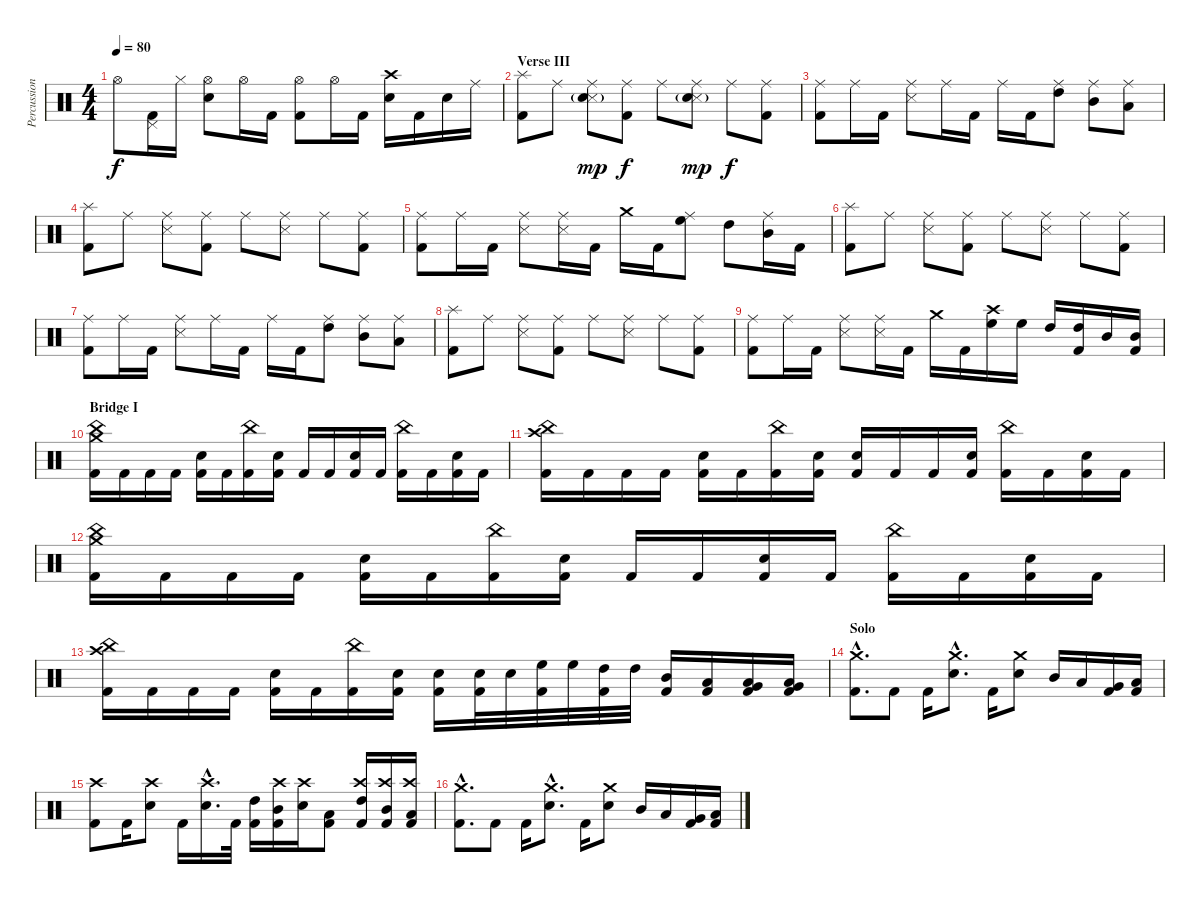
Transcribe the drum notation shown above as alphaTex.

\track ("Percussion" "Percussion") {instrument percussion}
\staff {score}
\articulation defaults
\ts (4 4)
\tempo 80
\clef neutral
\ks c "Hi-Hat (open)".8{dy f}
("Pedal Hi-Hat (hit)" "Kick (hit) 2").16 "Hi-Hat (closed)".16 ("Hi-Hat (open)" "Electric Snare (hit)").8 "Hi-Hat (open)".16 "Kick (hit) 2".16 ("Hi-Hat (open)" "Kick (hit) 2").8 "Hi-Hat (open)".16 "Kick (hit) 2".16 ("Crash high (hit)" "Electric Snare (hit)").16 "Kick (hit) 2".16 "Electric Snare (hit)".16 "Ride (middle)".16 |
\section ("" "Verse III")
("Splash (hit)" "Kick (hit) 2").8 "Ride (middle)".8 ("Ride (middle)" "Snare (side stick) 3" "Electric Snare (hit)"{g}).8{dy mp} ("Ride (middle)" "Kick (hit) 2").8{dy f} "Ride (middle)".8 ("Ride (middle)" "Snare (side stick) 3" "Electric Snare (hit)"{g}).8{dy mp} "Ride (middle)".8{dy f} ("Ride (middle)" "Kick (hit) 2").8 |
("Ride (middle)" "Kick (hit) 2").8 "Ride (middle)".16 "Kick (hit) 2".16 ("Ride (middle)" "Snare (side stick) 3").8 "Ride (middle)".16 "Kick (hit) 2".16 "Ride (middle)".16 "Kick (hit) 2".16 ("Ride (middle)" "High Tom (hit)").8 ("Ride (middle)" "Mid Tom (hit)").8 ("Ride (middle)" "Low Tom (hit)").8 |
("Splash (hit)" "Kick (hit) 2").8 "Ride (middle)".8 ("Ride (middle)" "Snare (side stick) 3").8 ("Ride (middle)" "Kick (hit) 2").8 "Ride (middle)".8 ("Ride (middle)" "Snare (side stick) 3").8 "Ride (middle)".8 ("Ride (middle)" "Kick (hit) 2").8 |
("Ride (middle)" "Kick (hit) 2").8 "Ride (middle)".16 "Kick (hit) 2".16 ("Ride (middle)" "Snare (side stick) 3").8 ("Ride (middle)" "Snare (side stick) 3").16 "Kick (hit) 2".16 "Crash medium (hit)".16 "Kick (hit) 2".16 ("Ride (middle)" "High Floor Tom (hit)").8 "High Tom (hit)".8 ("Ride (middle)" "Mid Tom (hit)").16 "Kick (hit) 2".16 |
("Splash (hit)" "Kick (hit) 2").8 "Ride (middle)".8 ("Ride (middle)" "Snare (side stick) 3").8 ("Ride (middle)" "Kick (hit) 2").8 "Ride (middle)".8 ("Ride (middle)" "Snare (side stick) 3").8 "Ride (middle)".8 ("Ride (middle)" "Kick (hit) 2").8 |
("Ride (middle)" "Kick (hit) 2").8 "Ride (middle)".16 "Kick (hit) 2".16 ("Ride (middle)" "Snare (side stick) 3").8 "Ride (middle)".16 "Kick (hit) 2".16 "Ride (middle)".16 "Kick (hit) 2".16 ("Ride (middle)" "High Tom (hit)").8 ("Ride (middle)" "Mid Tom (hit)").8 ("Ride (middle)" "Low Tom (hit)").8 |
("Splash (hit)" "Kick (hit) 2").8 "Ride (middle)".8 ("Ride (middle)" "Snare (side stick) 3").8 ("Ride (middle)" "Kick (hit) 2").8 "Ride (middle)".8 ("Ride (middle)" "Snare (side stick) 3").8 "Ride (middle)".8 ("Ride (middle)" "Kick (hit) 2").8 |
("Ride (middle)" "Kick (hit) 2").8 "Ride (middle)".16 "Kick (hit) 2".16 ("Ride (middle)" "Snare (side stick) 3").8 ("Ride (middle)" "Snare (side stick) 3").16 "Kick (hit) 2".16 "Crash medium (hit)".16 "Kick (hit) 2".16 ("Crash high (hit)" "High Floor Tom (hit)").16 "High Floor Tom (hit)".16 "High Tom (hit)".16 ("High Tom (hit)" "Kick (hit) 2").16 "Mid Tom (hit)".16 ("Mid Tom (hit)" "Kick (hit) 2").16 |
\section ("" "Bridge I")
("China (hit)" "Crash medium (hit)" "Kick (hit) 2").16 "Kick (hit) 2".16 "Kick (hit) 2".16 "Kick (hit) 2".16 ("Electric Snare (hit)" "Kick (hit) 2").16 "Kick (hit) 2".16 ("China (hit)" "Kick (hit) 2").16 ("Electric Snare (hit)" "Kick (hit) 2").16 "Kick (hit) 2".16 "Kick (hit) 2".16 ("Electric Snare (hit)" "Kick (hit) 2").16 "Kick (hit) 2".16 ("China (hit)" "Kick (hit) 2").16 "Kick (hit) 2".16 ("Electric Snare (hit)" "Kick (hit) 2").16 "Kick (hit) 2".16 |
("China (hit)" "Crash high (hit)" "Kick (hit) 2").16 "Kick (hit) 2".16 "Kick (hit) 2".16 "Kick (hit) 2".16 ("Electric Snare (hit)" "Kick (hit) 2").16 "Kick (hit) 2".16 ("China (hit)" "Kick (hit) 2").16 ("Electric Snare (hit)" "Kick (hit) 2").16 ("Electric Snare (hit)" "Kick (hit) 2").16 "Kick (hit) 2".16 "Kick (hit) 2".16 ("Electric Snare (hit)" "Kick (hit) 2").16 ("China (hit)" "Kick (hit) 2").16 "Kick (hit) 2".16 ("Electric Snare (hit)" "Kick (hit) 2").16 "Kick (hit) 2".16 |
("China (hit)" "Crash medium (hit)" "Kick (hit) 2").16 "Kick (hit) 2".16 "Kick (hit) 2".16 "Kick (hit) 2".16 ("Electric Snare (hit)" "Kick (hit) 2").16 "Kick (hit) 2".16 ("China (hit)" "Kick (hit) 2").16 ("Electric Snare (hit)" "Kick (hit) 2").16 "Kick (hit) 2".16 "Kick (hit) 2".16 ("Electric Snare (hit)" "Kick (hit) 2").16 "Kick (hit) 2".16 ("China (hit)" "Kick (hit) 2").16 "Kick (hit) 2".16 ("Electric Snare (hit)" "Kick (hit) 2").16 "Kick (hit) 2".16 |
("China (hit)" "Crash high (hit)" "Kick (hit) 2").16 "Kick (hit) 2".16 "Kick (hit) 2".16 "Kick (hit) 2".16 ("Electric Snare (hit)" "Kick (hit) 2").16 "Kick (hit) 2".16 ("China (hit)" "Kick (hit) 2").16 ("Electric Snare (hit)" "Kick (hit) 2").16 ("Electric Snare (hit)" "Kick (hit) 2").16 ("Electric Snare (hit)" "Kick (hit) 2").32 "Electric Snare (hit)".32 ("High Floor Tom (hit)" "Kick (hit) 2").32 "High Floor Tom (hit)".32 ("High Tom (hit)" "Kick (hit) 2").32 "High Tom (hit)".32 ("Mid Tom (hit)" "Kick (hit) 2").16 ("Low Tom (hit)" "Kick (hit) 2").16 ("Low Tom (hit)" "Very Low Tom (hit)" "Kick (hit) 2").16 ("Very Low Tom (hit)" "Low Floor Tom (hit)" "Kick (hit) 2").16 |
\section ("" "Solo")
("Crash medium (hit)"{hac} "Kick (hit) 2"{hac}).8{d} "Kick (hit) 2".8 "Kick (hit) 2".16 ("Crash medium (hit)"{hac} "Electric Snare (hit)"{hac}).8{d} "Kick (hit) 2".16 ("Crash medium (hit)" "Electric Snare (hit)").8 "Mid Tom (hit)".16 "Low Tom (hit)".16 ("Very Low Tom (hit)" "Kick (hit) 2").16 ("Low Floor Tom (hit)" "Kick (hit) 2").16 |
("Crash high (hit)" "Kick (hit) 2").8 "Kick (hit) 2".16 ("Crash high (hit)" "Electric Snare (hit)").8 "Kick (hit) 2".16 ("Crash high (hit)"{hac} "Electric Snare (hit)"{hac}).16{d} "Kick (hit) 2".32 ("High Tom (hit)" "Kick (hit) 2").16 ("Crash high (hit)" "Mid Tom (hit)" "Kick (hit) 2").16 ("Crash high (hit)" "Electric Snare (hit)").16 ("Low Tom (hit)" "Kick (hit) 2").8 ("Crash high (hit)" "High Tom (hit)" "Kick (hit) 2").16 ("Crash high (hit)" "Mid Tom (hit)" "Kick (hit) 2").16 ("Crash high (hit)" "Low Tom (hit)" "Kick (hit) 2").16 |
("Crash medium (hit)"{hac} "Kick (hit) 2"{hac}).8{d} "Kick (hit) 2".8 "Kick (hit) 2".16 ("Crash medium (hit)"{hac} "Electric Snare (hit)"{hac}).8{d} "Kick (hit) 2".16 ("Crash medium (hit)" "Electric Snare (hit)").8 "Mid Tom (hit)".16 "Low Tom (hit)".16 ("Very Low Tom (hit)" "Kick (hit) 2").16 ("Low Floor Tom (hit)" "Kick (hit) 2").16
